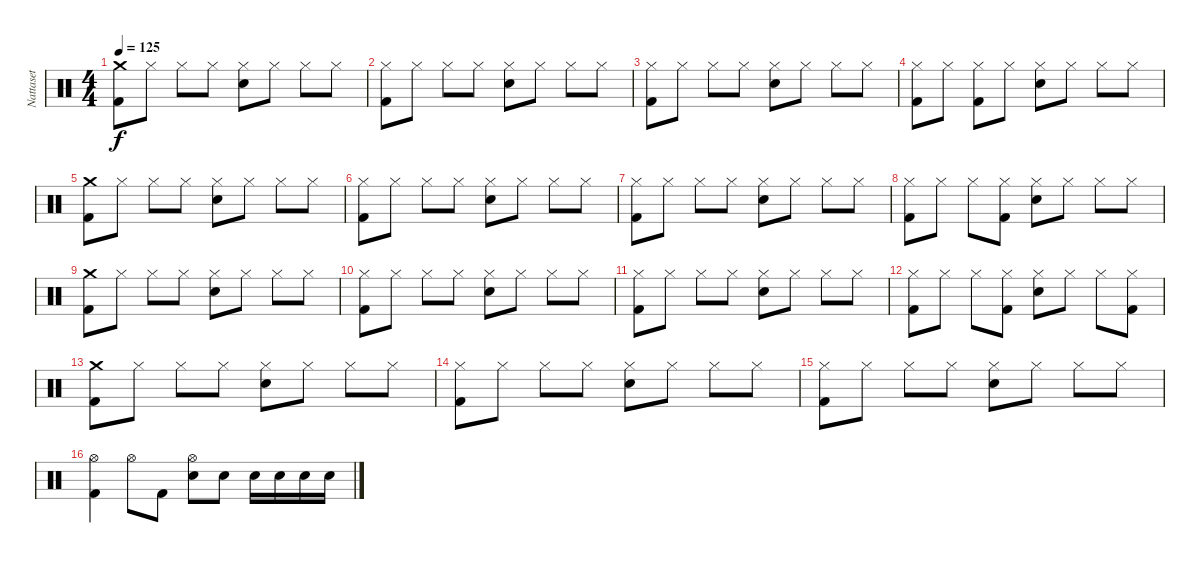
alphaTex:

\track ("Nattaset" "Nattaset") {instrument percussion}
\staff {score}
\articulation defaults
\ts (4 4)
\tempo 125
\clef neutral
\ks c
("Kick (hit) 2" "Crash medium (hit)").8{dy f} "Hi-Hat (closed)".8 "Hi-Hat (closed)".8 "Hi-Hat (closed)".8 ("Snare (hit) 2" "Hi-Hat (closed)").8 "Hi-Hat (closed)".8 "Hi-Hat (closed)".8 "Hi-Hat (closed)".8 |
("Kick (hit) 2" "Hi-Hat (closed)").8 "Hi-Hat (closed)".8 "Hi-Hat (closed)".8 "Hi-Hat (closed)".8 ("Snare (hit) 2" "Hi-Hat (closed)").8 "Hi-Hat (closed)".8 "Hi-Hat (closed)".8 "Hi-Hat (closed)".8 |
("Kick (hit) 2" "Hi-Hat (closed)").8 "Hi-Hat (closed)".8 "Hi-Hat (closed)".8 "Hi-Hat (closed)".8 ("Snare (hit) 2" "Hi-Hat (closed)").8 "Hi-Hat (closed)".8 "Hi-Hat (closed)".8 "Hi-Hat (closed)".8 |
("Kick (hit) 2" "Hi-Hat (closed)").8 "Hi-Hat (closed)".8 ("Kick (hit) 2" "Hi-Hat (closed)").8 "Hi-Hat (closed)".8 ("Snare (hit) 2" "Hi-Hat (closed)").8 "Hi-Hat (closed)".8 "Hi-Hat (closed)".8 "Hi-Hat (closed)".8 |
("Kick (hit) 2" "Crash medium (hit)").8 "Hi-Hat (closed)".8 "Hi-Hat (closed)".8 "Hi-Hat (closed)".8 ("Snare (hit) 2" "Hi-Hat (closed)").8 "Hi-Hat (closed)".8 "Hi-Hat (closed)".8 "Hi-Hat (closed)".8 |
("Kick (hit) 2" "Hi-Hat (closed)").8 "Hi-Hat (closed)".8 "Hi-Hat (closed)".8 "Hi-Hat (closed)".8 ("Snare (hit) 2" "Hi-Hat (closed)").8 "Hi-Hat (closed)".8 "Hi-Hat (closed)".8 "Hi-Hat (closed)".8 |
("Kick (hit) 2" "Hi-Hat (closed)").8 "Hi-Hat (closed)".8 "Hi-Hat (closed)".8 "Hi-Hat (closed)".8 ("Snare (hit) 2" "Hi-Hat (closed)").8 "Hi-Hat (closed)".8 "Hi-Hat (closed)".8 "Hi-Hat (closed)".8 |
("Kick (hit) 2" "Hi-Hat (closed)").8 "Hi-Hat (closed)".8 "Hi-Hat (closed)".8 ("Kick (hit) 2" "Hi-Hat (closed)").8 ("Snare (hit) 2" "Hi-Hat (closed)").8 "Hi-Hat (closed)".8 "Hi-Hat (closed)".8 "Hi-Hat (closed)".8 |
("Kick (hit) 2" "Crash medium (hit)").8 "Hi-Hat (closed)".8 "Hi-Hat (closed)".8 "Hi-Hat (closed)".8 ("Snare (hit) 2" "Hi-Hat (closed)").8 "Hi-Hat (closed)".8 "Hi-Hat (closed)".8 "Hi-Hat (closed)".8 |
("Kick (hit) 2" "Hi-Hat (closed)").8 "Hi-Hat (closed)".8 "Hi-Hat (closed)".8 "Hi-Hat (closed)".8 ("Snare (hit) 2" "Hi-Hat (closed)").8 "Hi-Hat (closed)".8 "Hi-Hat (closed)".8 "Hi-Hat (closed)".8 |
("Kick (hit) 2" "Hi-Hat (closed)").8 "Hi-Hat (closed)".8 "Hi-Hat (closed)".8 "Hi-Hat (closed)".8 ("Snare (hit) 2" "Hi-Hat (closed)").8 "Hi-Hat (closed)".8 "Hi-Hat (closed)".8 "Hi-Hat (closed)".8 |
("Kick (hit) 2" "Hi-Hat (closed)").8 "Hi-Hat (closed)".8 "Hi-Hat (closed)".8 ("Kick (hit) 2" "Hi-Hat (closed)").8 ("Snare (hit) 2" "Hi-Hat (closed)").8 "Hi-Hat (closed)".8 "Hi-Hat (closed)".8 ("Kick (hit) 2" "Hi-Hat (closed)").8 |
("Kick (hit) 2" "Crash medium (hit)").8 "Hi-Hat (closed)".8 "Hi-Hat (closed)".8 "Hi-Hat (closed)".8 ("Snare (hit) 2" "Hi-Hat (closed)").8 "Hi-Hat (closed)".8 "Hi-Hat (closed)".8 "Hi-Hat (closed)".8 |
("Kick (hit) 2" "Hi-Hat (closed)").8 "Hi-Hat (closed)".8 "Hi-Hat (closed)".8 "Hi-Hat (closed)".8 ("Snare (hit) 2" "Hi-Hat (closed)").8 "Hi-Hat (closed)".8 "Hi-Hat (closed)".8 "Hi-Hat (closed)".8 |
("Kick (hit) 2" "Hi-Hat (closed)").8 "Hi-Hat (closed)".8 "Hi-Hat (closed)".8 "Hi-Hat (closed)".8 ("Snare (hit) 2" "Hi-Hat (closed)").8 "Hi-Hat (closed)".8 "Hi-Hat (closed)".8 "Hi-Hat (closed)".8 |
("Kick (hit) 2" "Hi-Hat (open)").4 "Hi-Hat (open)".8 "Kick (hit) 2".8 ("Snare (hit) 2" "Hi-Hat (open)").8 "Snare (hit) 2".8 "Snare (hit) 2".16 "Snare (hit) 2".16 "Snare (hit) 2".16 "Snare (hit) 2".16
